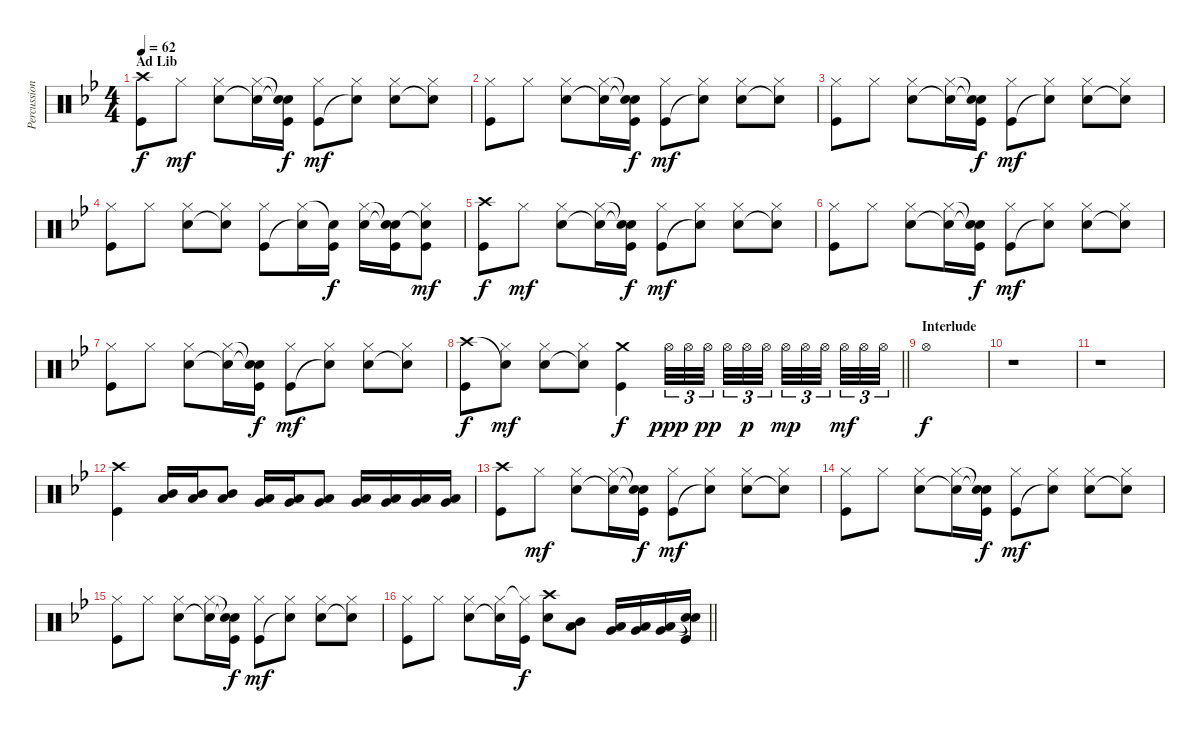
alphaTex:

\track ("Percussion" "Percussion") {instrument percussion}
\staff {score}
\articulation defaults
\ts (4 4)
\section ("" "Ad Lib")
\tempo 62
\clef neutral
\ks bb
("Crash high (hit)" "Kick (hit)").8{dy f} "Hi-Hat (closed)".8{dy mf} ("Hi-Hat (closed)" "Snare (hit) 2").8 ("Hi-Hat (closed)" "Snare (hit)"{t}).16 ("Snare (hit)"{t} "Snare (hit)"{t} "Kick (hit)").16{dy f} ("Hi-Hat (closed)" "Kick (hit)").8{dy mf} ("Hi-Hat (closed)" "Snare (hit)"{t}).8 ("Hi-Hat (closed)" "Snare (hit) 2").8 ("Hi-Hat (closed)" "Snare (hit)"{t}).8 |
("Hi-Hat (closed)" "Kick (hit)").8 "Hi-Hat (closed)".8 ("Hi-Hat (closed)" "Snare (hit) 2").8 ("Hi-Hat (closed)" "Snare (hit)"{t}).16 ("Snare (hit)"{t} "Snare (hit)"{t} "Kick (hit)").16{dy f} ("Hi-Hat (closed)" "Kick (hit)").8{dy mf} ("Hi-Hat (closed)" "Snare (hit)"{t}).8 ("Hi-Hat (closed)" "Snare (hit) 2").8 ("Hi-Hat (closed)" "Snare (hit)"{t}).8 |
("Hi-Hat (closed)" "Kick (hit)").8 "Hi-Hat (closed)".8 ("Hi-Hat (closed)" "Snare (hit) 2").8 ("Hi-Hat (closed)" "Snare (hit)"{t}).16 ("Snare (hit)"{t} "Snare (hit)"{t} "Kick (hit)").16{dy f} ("Hi-Hat (closed)" "Kick (hit)").8{dy mf} ("Hi-Hat (closed)" "Snare (hit)"{t}).8 ("Hi-Hat (closed)" "Snare (hit) 2").8 ("Hi-Hat (closed)" "Snare (hit)"{t}).8 |
("Hi-Hat (closed)" "Kick (hit)").8 "Hi-Hat (closed)".8 ("Hi-Hat (closed)" "Snare (hit) 2").8 ("Hi-Hat (closed)" "Snare (hit)"{t}).8 ("Hi-Hat (closed)" "Kick (hit)").8 ("Hi-Hat (closed)" "Snare (hit)"{t}).16 ("Snare (hit)"{t} "Kick (hit)").16{dy f} ("Hi-Hat (closed)" "Snare (hit) 2").16 ("Snare (hit)"{t} "Snare (hit)"{t} "Kick (hit)").16 ("Hi-Hat (closed)" "Snare (hit)"{t} "Kick (hit)").8{dy mf} |
("Crash high (hit)" "Kick (hit)").8{dy f} "Hi-Hat (closed)".8{dy mf} ("Hi-Hat (closed)" "Snare (hit) 2").8 ("Hi-Hat (closed)" "Snare (hit)"{t}).16 ("Snare (hit)"{t} "Snare (hit)"{t} "Kick (hit)").16{dy f} ("Hi-Hat (closed)" "Kick (hit)").8{dy mf} ("Hi-Hat (closed)" "Snare (hit)"{t}).8 ("Hi-Hat (closed)" "Snare (hit) 2").8 ("Hi-Hat (closed)" "Snare (hit)"{t}).8 |
("Hi-Hat (closed)" "Kick (hit)").8 "Hi-Hat (closed)".8 ("Hi-Hat (closed)" "Snare (hit) 2").8 ("Hi-Hat (closed)" "Snare (hit)"{t}).16 ("Snare (hit)"{t} "Snare (hit)"{t} "Kick (hit)").16{dy f} ("Hi-Hat (closed)" "Kick (hit)").8{dy mf} ("Hi-Hat (closed)" "Snare (hit)"{t}).8 ("Hi-Hat (closed)" "Snare (hit) 2").8 ("Hi-Hat (closed)" "Snare (hit)"{t}).8 |
("Hi-Hat (closed)" "Kick (hit)").8 "Hi-Hat (closed)".8 ("Hi-Hat (closed)" "Snare (hit) 2").8 ("Hi-Hat (closed)" "Snare (hit)"{t}).16 ("Snare (hit)"{t} "Snare (hit)"{t} "Kick (hit)").16{dy f} ("Hi-Hat (closed)" "Kick (hit)").8{dy mf} ("Hi-Hat (closed)" "Snare (hit)"{t}).8 ("Hi-Hat (closed)" "Snare (hit) 2").8 ("Hi-Hat (closed)" "Snare (hit)"{t}).8 |
\barLineRight lightlight
("Crash high (hit)" "Kick (hit)").8{dy f} ("Snare (hit)"{t} "Hi-Hat (closed)").8{dy mf} ("Hi-Hat (closed)" "Snare (hit) 2").8 ("Hi-Hat (closed)" "Snare (hit)"{t}).8 ("Crash medium (hit)" "Kick (hit)").4{dy f} "Hi-Hat (open)".32{tu (3 2) dy ppp} "Hi-Hat (open)".32{tu (3 2)} "Hi-Hat (open)".32{tu (3 2) dy pp} "Hi-Hat (open)".32{tu (3 2)} "Hi-Hat (open)".32{tu (3 2) dy p} "Hi-Hat (open)".32{tu (3 2)} "Hi-Hat (open)".32{tu (3 2) dy mp} "Hi-Hat (open)".32{tu (3 2)} "Hi-Hat (open)".32{tu (3 2)} "Hi-Hat (open)".32{tu (3 2) dy mf} "Hi-Hat (open)".32{tu (3 2)} "Hi-Hat (open)".32{tu (3 2)} |
\section ("" "Interlude")
"Hi-Hat (open)".1{dy f} |
r.1 |
r.1 |
("Crash high (hit)" "Kick (hit)").4 ("Low Tom (hit)" "Mid Tom (hit)").16 ("Low Tom (hit)" "Mid Tom (hit)").16 ("Low Tom (hit)" "Mid Tom (hit)").8 ("Very Low Tom (hit)" "Low Tom (hit)").16 ("Very Low Tom (hit)" "Low Tom (hit)").16 ("Very Low Tom (hit)" "Low Tom (hit)").8 ("Low Floor Tom (hit)" "Very Low Tom (hit)").16 ("Low Floor Tom (hit)" "Very Low Tom (hit)").16 ("Low Floor Tom (hit)" "Very Low Tom (hit)").16 ("Low Floor Tom (hit)" "Very Low Tom (hit)").16 |
("Crash high (hit)" "Kick (hit)").8 "Hi-Hat (closed)".8{dy mf} ("Hi-Hat (closed)" "Snare (hit) 2").8 ("Hi-Hat (closed)" "Snare (hit)"{t}).16 ("Snare (hit)"{t} "Snare (hit)"{t} "Kick (hit)").16{dy f} ("Hi-Hat (closed)" "Kick (hit)").8{dy mf} ("Hi-Hat (closed)" "Snare (hit)"{t}).8 ("Hi-Hat (closed)" "Snare (hit) 2").8 ("Hi-Hat (closed)" "Snare (hit)"{t}).8 |
("Hi-Hat (closed)" "Kick (hit)").8 "Hi-Hat (closed)".8 ("Hi-Hat (closed)" "Snare (hit) 2").8 ("Hi-Hat (closed)" "Snare (hit)"{t}).16 ("Snare (hit)"{t} "Snare (hit)"{t} "Kick (hit)").16{dy f} ("Hi-Hat (closed)" "Kick (hit)").8{dy mf} ("Hi-Hat (closed)" "Snare (hit)"{t}).8 ("Hi-Hat (closed)" "Snare (hit) 2").8 ("Hi-Hat (closed)" "Snare (hit)"{t}).8 |
("Hi-Hat (closed)" "Kick (hit)").8 "Hi-Hat (closed)".8 ("Hi-Hat (closed)" "Snare (hit) 2").8 ("Hi-Hat (closed)" "Snare (hit)"{t}).16 ("Snare (hit)"{t} "Snare (hit)"{t} "Kick (hit)").16{dy f} ("Hi-Hat (closed)" "Kick (hit)").8{dy mf} ("Hi-Hat (closed)" "Snare (hit)"{t}).8 ("Hi-Hat (closed)" "Snare (hit) 2").8 ("Hi-Hat (closed)" "Snare (hit)"{t}).8 |
\barLineRight lightlight
("Hi-Hat (closed)" "Kick (hit)").8 "Hi-Hat (closed)".8 ("Hi-Hat (closed)" "Snare (hit) 2").8 ("Hi-Hat (closed)" "Snare (hit)"{t}).16 ("Hi-Hat (closed)"{t} "Kick (hit)").16{dy f} ("Crash high (hit)" "Snare (hit) 2").8 ("Low Tom (hit)" "Mid Tom (hit)").8 ("Very Low Tom (hit)" "Low Tom (hit)").16 ("Very Low Tom (hit)" "Low Tom (hit)").16 ("Low Floor Tom (hit)" "Very Low Tom (hit)").16 ("Snare (hit)"{t} "Snare (hit)"{t} "Kick (hit)").16
